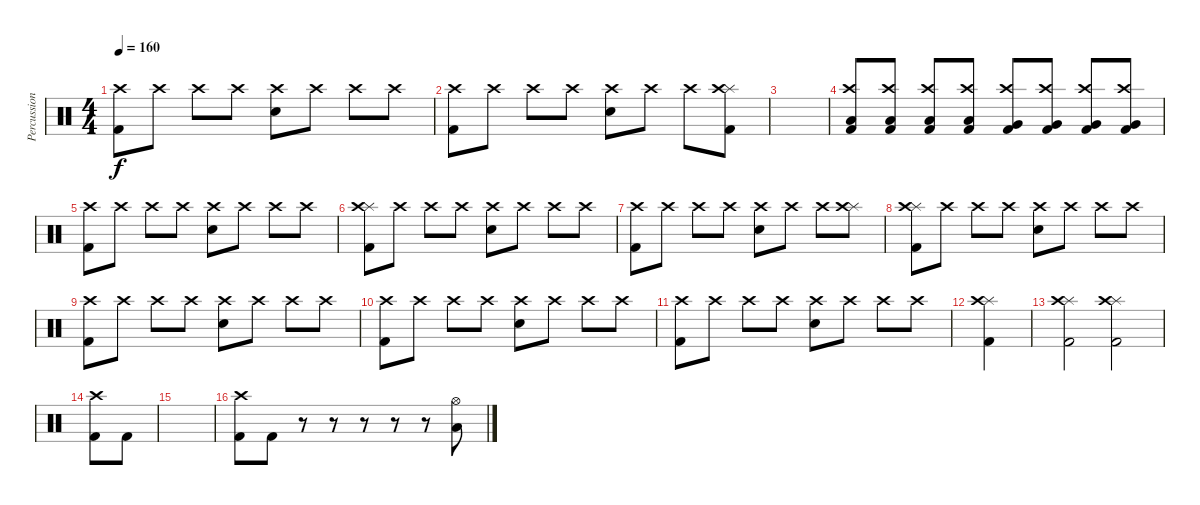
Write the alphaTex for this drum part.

\track ("Percussion" "Percussion") {instrument percussion}
\staff {score}
\articulation defaults
\ts (4 4)
\tempo 160
\clef neutral
\ks c
("Kick (hit) 2" "Crash high (hit)").8{dy f} "Crash high (hit)".8 "Crash high (hit)".8 "Crash high (hit)".8 ("Electric Snare (hit)" "Crash high (hit)").8 "Crash high (hit)".8 "Crash high (hit)".8 "Crash high (hit)".8 |
("Kick (hit) 2" "Crash high (hit)").8 "Crash high (hit)".8 "Crash high (hit)".8 "Crash high (hit)".8 ("Electric Snare (hit)" "Crash high (hit)").8 "Crash high (hit)".8 "Crash high (hit)".8 ("Splash (hit)" "Kick (hit) 2" "Crash high (hit)").8 |
|
("Kick (hit) 2" "Crash high (hit)" "Low Tom (hit)").8 ("Kick (hit) 2" "Crash high (hit)" "Low Tom (hit)").8 ("Kick (hit) 2" "Crash high (hit)" "Low Tom (hit)").8 ("Kick (hit) 2" "Crash high (hit)" "Low Tom (hit)").8 ("Kick (hit) 2" "Crash high (hit)" "Very Low Tom (hit)").8 ("Kick (hit) 2" "Crash high (hit)" "Very Low Tom (hit)").8 ("Kick (hit) 2" "Crash high (hit)" "Very Low Tom (hit)").8 ("Kick (hit) 2" "Crash high (hit)" "Very Low Tom (hit)").8 |
("Kick (hit) 2" "Crash high (hit)").8 "Crash high (hit)".8 "Crash high (hit)".8 "Crash high (hit)".8 ("Electric Snare (hit)" "Crash high (hit)").8 "Crash high (hit)".8 "Crash high (hit)".8 "Crash high (hit)".8 |
("Splash (hit)" "Kick (hit) 2" "Crash high (hit)").8 "Crash high (hit)".8 "Crash high (hit)".8 "Crash high (hit)".8 ("Electric Snare (hit)" "Crash high (hit)").8 "Crash high (hit)".8 "Crash high (hit)".8 "Crash high (hit)".8 |
("Kick (hit) 2" "Crash high (hit)").8 "Crash high (hit)".8 "Crash high (hit)".8 "Crash high (hit)".8 ("Electric Snare (hit)" "Crash high (hit)").8 "Crash high (hit)".8 "Crash high (hit)".8 ("Splash (hit)" "Crash high (hit)").8 |
("Splash (hit)" "Kick (hit) 2" "Crash high (hit)").8 "Crash high (hit)".8 "Crash high (hit)".8 "Crash high (hit)".8 ("Electric Snare (hit)" "Crash high (hit)").8 "Crash high (hit)".8 "Crash high (hit)".8 "Crash high (hit)".8 |
("Kick (hit) 2" "Crash high (hit)").8 "Crash high (hit)".8 "Crash high (hit)".8 "Crash high (hit)".8 ("Electric Snare (hit)" "Crash high (hit)").8 "Crash high (hit)".8 "Crash high (hit)".8 "Crash high (hit)".8 |
("Kick (hit) 2" "Crash high (hit)").8 "Crash high (hit)".8 "Crash high (hit)".8 "Crash high (hit)".8 ("Electric Snare (hit)" "Crash high (hit)").8 "Crash high (hit)".8 "Crash high (hit)".8 "Crash high (hit)".8 |
("Kick (hit) 2" "Crash high (hit)").8 "Crash high (hit)".8 "Crash high (hit)".8 "Crash high (hit)".8 ("Electric Snare (hit)" "Crash high (hit)").8 "Crash high (hit)".8 "Crash high (hit)".8 "Crash high (hit)".8 |
("Splash (hit)" "Kick (hit) 2" "Crash high (hit)").4 |
("Splash (hit)" "Kick (hit) 2" "Crash high (hit)").2 ("Splash (hit)" "Kick (hit) 2" "Crash high (hit)").2 |
("Crash high (hit)" "Kick (hit) 2").8 "Kick (hit) 2".8 |
|
("Crash high (hit)" "Kick (hit) 2").8 "Kick (hit) 2".8 r.8 r.8 r.8 r.8 r.8 ("Hi-Hat (open)" "Low Tom (hit)").8
